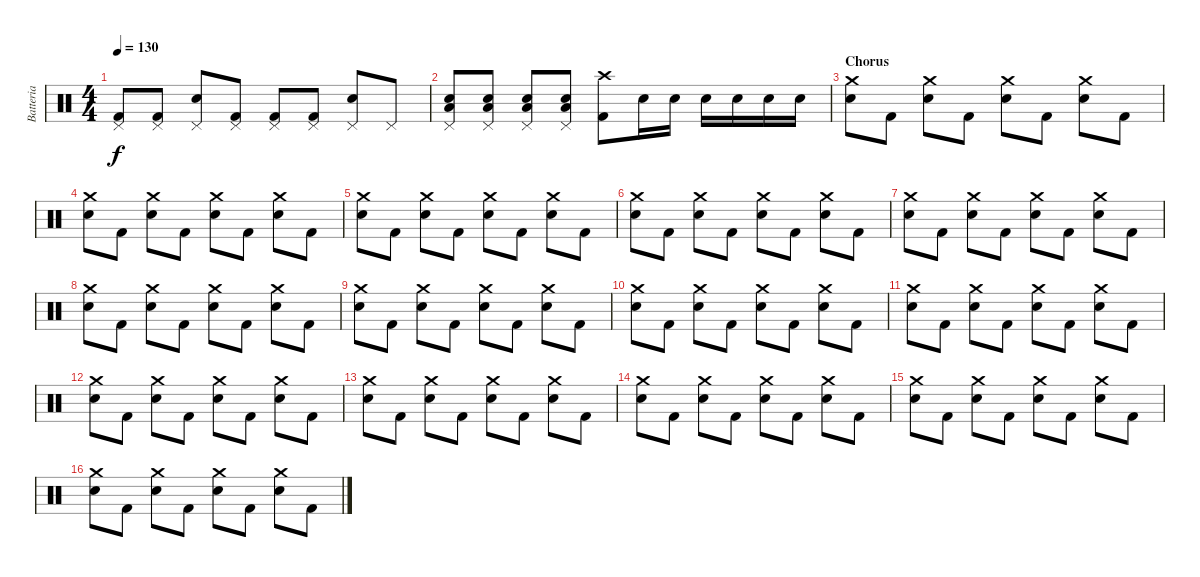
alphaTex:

\track ("Batteria" "Batteria") {instrument percussion}
\staff {score}
\articulation defaults
\ts (4 4)
\tempo 130
\clef neutral
\ks c
("Pedal Hi-Hat (hit)" "Kick (hit) 2").8{dy f} ("Pedal Hi-Hat (hit)" "Kick (hit) 2").8 ("Pedal Hi-Hat (hit)" "Electric Snare (hit)").8 ("Pedal Hi-Hat (hit)" "Kick (hit) 2").8 ("Pedal Hi-Hat (hit)" "Kick (hit) 2").8 ("Pedal Hi-Hat (hit)" "Kick (hit) 2").8 ("Pedal Hi-Hat (hit)" "Electric Snare (hit)").8 "Pedal Hi-Hat (hit)".8 |
("Pedal Hi-Hat (hit)" "Electric Snare (hit)" "Low Tom (hit)").8 ("Pedal Hi-Hat (hit)" "Electric Snare (hit)" "Low Tom (hit)").8 ("Pedal Hi-Hat (hit)" "Electric Snare (hit)" "Low Tom (hit)").8 ("Pedal Hi-Hat (hit)" "Electric Snare (hit)" "Low Tom (hit)").8 ("Crash high (hit)" "Kick (hit) 2").8 "Electric Snare (hit)".16 "Electric Snare (hit)".16 "Electric Snare (hit)".16 "Electric Snare (hit)".16 "Electric Snare (hit)".16 "Electric Snare (hit)".16 |
\section ("" "Chorus")
("Crash medium (hit)" "Electric Snare (hit)").8 "Kick (hit) 2".8 ("Crash medium (hit)" "Electric Snare (hit)").8 "Kick (hit) 2".8 ("Crash medium (hit)" "Electric Snare (hit)").8 "Kick (hit) 2".8 ("Crash medium (hit)" "Electric Snare (hit)").8 "Kick (hit) 2".8 |
("Crash medium (hit)" "Electric Snare (hit)").8 "Kick (hit) 2".8 ("Crash medium (hit)" "Electric Snare (hit)").8 "Kick (hit) 2".8 ("Crash medium (hit)" "Electric Snare (hit)").8 "Kick (hit) 2".8 ("Crash medium (hit)" "Electric Snare (hit)").8 "Kick (hit) 2".8 |
("Crash medium (hit)" "Electric Snare (hit)").8 "Kick (hit) 2".8 ("Crash medium (hit)" "Electric Snare (hit)").8 "Kick (hit) 2".8 ("Crash medium (hit)" "Electric Snare (hit)").8 "Kick (hit) 2".8 ("Crash medium (hit)" "Electric Snare (hit)").8 "Kick (hit) 2".8 |
("Crash medium (hit)" "Electric Snare (hit)").8 "Kick (hit) 2".8 ("Crash medium (hit)" "Electric Snare (hit)").8 "Kick (hit) 2".8 ("Crash medium (hit)" "Electric Snare (hit)").8 "Kick (hit) 2".8 ("Crash medium (hit)" "Electric Snare (hit)").8 "Kick (hit) 2".8 |
("Crash medium (hit)" "Electric Snare (hit)").8 "Kick (hit) 2".8 ("Crash medium (hit)" "Electric Snare (hit)").8 "Kick (hit) 2".8 ("Crash medium (hit)" "Electric Snare (hit)").8 "Kick (hit) 2".8 ("Crash medium (hit)" "Electric Snare (hit)").8 "Kick (hit) 2".8 |
("Crash medium (hit)" "Electric Snare (hit)").8 "Kick (hit) 2".8 ("Crash medium (hit)" "Electric Snare (hit)").8 "Kick (hit) 2".8 ("Crash medium (hit)" "Electric Snare (hit)").8 "Kick (hit) 2".8 ("Crash medium (hit)" "Electric Snare (hit)").8 "Kick (hit) 2".8 |
("Crash medium (hit)" "Electric Snare (hit)").8 "Kick (hit) 2".8 ("Crash medium (hit)" "Electric Snare (hit)").8 "Kick (hit) 2".8 ("Crash medium (hit)" "Electric Snare (hit)").8 "Kick (hit) 2".8 ("Crash medium (hit)" "Electric Snare (hit)").8 "Kick (hit) 2".8 |
("Crash medium (hit)" "Electric Snare (hit)").8 "Kick (hit) 2".8 ("Crash medium (hit)" "Electric Snare (hit)").8 "Kick (hit) 2".8 ("Crash medium (hit)" "Electric Snare (hit)").8 "Kick (hit) 2".8 ("Crash medium (hit)" "Electric Snare (hit)").8 "Kick (hit) 2".8 |
("Crash medium (hit)" "Electric Snare (hit)").8 "Kick (hit) 2".8 ("Crash medium (hit)" "Electric Snare (hit)").8 "Kick (hit) 2".8 ("Crash medium (hit)" "Electric Snare (hit)").8 "Kick (hit) 2".8 ("Crash medium (hit)" "Electric Snare (hit)").8 "Kick (hit) 2".8 |
("Crash medium (hit)" "Electric Snare (hit)").8 "Kick (hit) 2".8 ("Crash medium (hit)" "Electric Snare (hit)").8 "Kick (hit) 2".8 ("Crash medium (hit)" "Electric Snare (hit)").8 "Kick (hit) 2".8 ("Crash medium (hit)" "Electric Snare (hit)").8 "Kick (hit) 2".8 |
("Crash medium (hit)" "Electric Snare (hit)").8 "Kick (hit) 2".8 ("Crash medium (hit)" "Electric Snare (hit)").8 "Kick (hit) 2".8 ("Crash medium (hit)" "Electric Snare (hit)").8 "Kick (hit) 2".8 ("Crash medium (hit)" "Electric Snare (hit)").8 "Kick (hit) 2".8 |
("Crash medium (hit)" "Electric Snare (hit)").8 "Kick (hit) 2".8 ("Crash medium (hit)" "Electric Snare (hit)").8 "Kick (hit) 2".8 ("Crash medium (hit)" "Electric Snare (hit)").8 "Kick (hit) 2".8 ("Crash medium (hit)" "Electric Snare (hit)").8 "Kick (hit) 2".8 |
("Crash medium (hit)" "Electric Snare (hit)").8 "Kick (hit) 2".8 ("Crash medium (hit)" "Electric Snare (hit)").8 "Kick (hit) 2".8 ("Crash medium (hit)" "Electric Snare (hit)").8 "Kick (hit) 2".8 ("Crash medium (hit)" "Electric Snare (hit)").8 "Kick (hit) 2".8 |
("Crash medium (hit)" "Electric Snare (hit)").8 "Kick (hit) 2".8 ("Crash medium (hit)" "Electric Snare (hit)").8 "Kick (hit) 2".8 ("Crash medium (hit)" "Electric Snare (hit)").8 "Kick (hit) 2".8 ("Crash medium (hit)" "Electric Snare (hit)").8 "Kick (hit) 2".8
